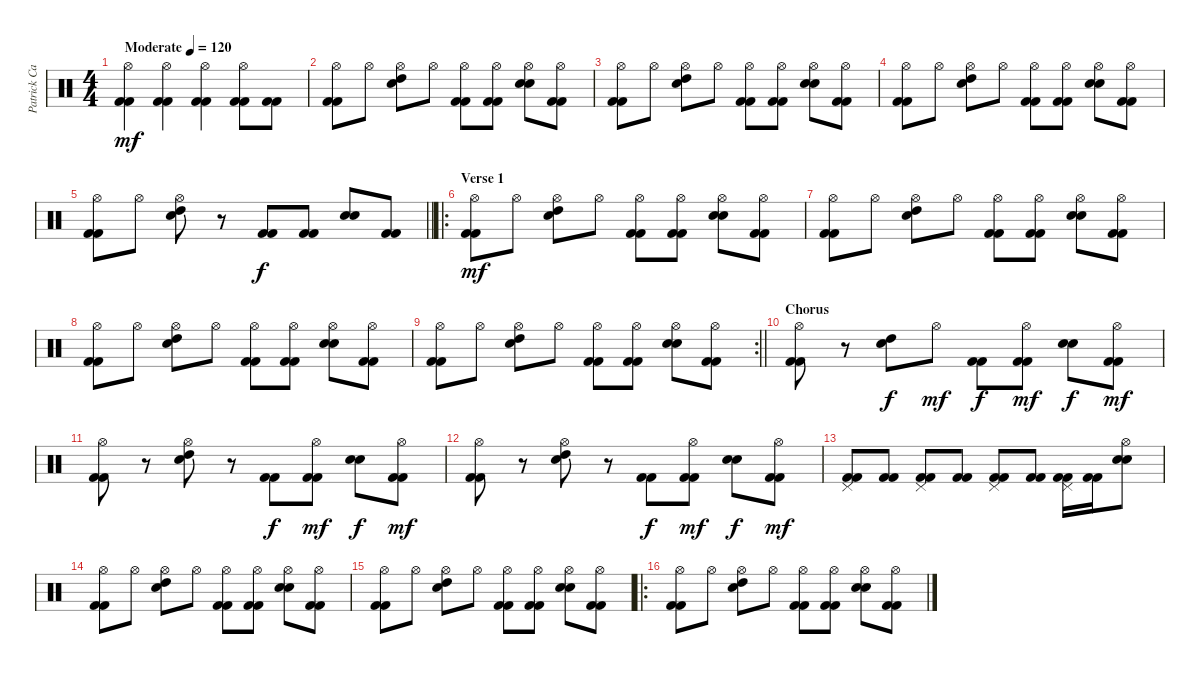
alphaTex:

\track ("Patrick Carney" "Patrick Ca") {instrument percussion}
\staff {score}
\articulation defaults
\ts (4 4)
\tempo (120 "Moderate")
\clef neutral
\ks c
("Hi-Hat (open)" "Kick (hit) 2" "Kick (hit) 2").4{dy mf} ("Hi-Hat (open)" "Kick (hit) 2" "Kick (hit) 2").4 ("Hi-Hat (open)" "Kick (hit) 2" "Kick (hit) 2").4 ("Hi-Hat (open)" "Kick (hit) 2" "Kick (hit) 2").8 ("Kick (hit) 2" "Kick (hit) 2").8 |
("Hi-Hat (open)" "Kick (hit) 2" "Kick (hit) 2").8 "Hi-Hat (open)".8 ("Hi-Hat (open)" "Electric Snare (hit)" "High Tom (hit)").8 "Hi-Hat (open)".8 ("Hi-Hat (open)" "Kick (hit) 2" "Kick (hit) 2").8 ("Hi-Hat (open)" "Kick (hit) 2" "Kick (hit) 2").8 ("Hi-Hat (open)" "Electric Snare (hit)" "Snare (hit) 2").8 ("Hi-Hat (open)" "Kick (hit) 2" "Kick (hit) 2").8 |
("Hi-Hat (open)" "Kick (hit) 2" "Kick (hit) 2").8 "Hi-Hat (open)".8 ("Hi-Hat (open)" "Electric Snare (hit)" "High Tom (hit)").8 "Hi-Hat (open)".8 ("Hi-Hat (open)" "Kick (hit) 2" "Kick (hit) 2").8 ("Hi-Hat (open)" "Kick (hit) 2" "Kick (hit) 2").8 ("Hi-Hat (open)" "Electric Snare (hit)" "Snare (hit) 2").8 ("Hi-Hat (open)" "Kick (hit) 2" "Kick (hit) 2").8 |
("Hi-Hat (open)" "Kick (hit) 2" "Kick (hit) 2").8 "Hi-Hat (open)".8 ("Hi-Hat (open)" "Electric Snare (hit)" "High Tom (hit)").8 "Hi-Hat (open)".8 ("Hi-Hat (open)" "Kick (hit) 2" "Kick (hit) 2").8 ("Hi-Hat (open)" "Kick (hit) 2" "Kick (hit) 2").8 ("Hi-Hat (open)" "Electric Snare (hit)" "Snare (hit) 2").8 ("Hi-Hat (open)" "Kick (hit) 2" "Kick (hit) 2").8 |
\barLineRight lightlight
("Hi-Hat (open)" "Kick (hit) 2" "Kick (hit) 2").8 "Hi-Hat (open)".8 ("Hi-Hat (open)" "Electric Snare (hit)" "High Tom (hit)").8 r.8 ("Kick (hit) 2" "Kick (hit) 2").8{dy f} ("Kick (hit) 2" "Kick (hit) 2").8 ("Electric Snare (hit)" "Snare (hit) 2").8 ("Kick (hit) 2" "Kick (hit) 2").8 |
\ro
\section ("" "Verse 1")
("Hi-Hat (open)" "Kick (hit) 2" "Kick (hit) 2").8{dy mf} "Hi-Hat (open)".8 ("Hi-Hat (open)" "Electric Snare (hit)" "High Tom (hit)").8 "Hi-Hat (open)".8 ("Hi-Hat (open)" "Kick (hit) 2" "Kick (hit) 2").8 ("Hi-Hat (open)" "Kick (hit) 2" "Kick (hit) 2").8 ("Hi-Hat (open)" "Electric Snare (hit)" "Snare (hit) 2").8 ("Hi-Hat (open)" "Kick (hit) 2" "Kick (hit) 2").8 |
("Hi-Hat (open)" "Kick (hit) 2" "Kick (hit) 2").8 "Hi-Hat (open)".8 ("Hi-Hat (open)" "Electric Snare (hit)" "High Tom (hit)").8 "Hi-Hat (open)".8 ("Hi-Hat (open)" "Kick (hit) 2" "Kick (hit) 2").8 ("Hi-Hat (open)" "Kick (hit) 2" "Kick (hit) 2").8 ("Hi-Hat (open)" "Electric Snare (hit)" "Snare (hit) 2").8 ("Hi-Hat (open)" "Kick (hit) 2" "Kick (hit) 2").8 |
("Hi-Hat (open)" "Kick (hit) 2" "Kick (hit) 2").8 "Hi-Hat (open)".8 ("Hi-Hat (open)" "Electric Snare (hit)" "High Tom (hit)").8 "Hi-Hat (open)".8 ("Hi-Hat (open)" "Kick (hit) 2" "Kick (hit) 2").8 ("Hi-Hat (open)" "Kick (hit) 2" "Kick (hit) 2").8 ("Hi-Hat (open)" "Electric Snare (hit)" "Snare (hit) 2").8 ("Hi-Hat (open)" "Kick (hit) 2" "Kick (hit) 2").8 |
\rc 2
\barLineRight lightlight
("Hi-Hat (open)" "Kick (hit) 2" "Kick (hit) 2").8 "Hi-Hat (open)".8 ("Hi-Hat (open)" "Electric Snare (hit)" "High Tom (hit)").8 "Hi-Hat (open)".8 ("Hi-Hat (open)" "Kick (hit) 2" "Kick (hit) 2").8 ("Hi-Hat (open)" "Kick (hit) 2" "Kick (hit) 2").8 ("Hi-Hat (open)" "Electric Snare (hit)" "Snare (hit) 2").8 ("Hi-Hat (open)" "Kick (hit) 2" "Kick (hit) 2").8 |
\section ("" "Chorus")
("Hi-Hat (open)" "Kick (hit) 2" "Kick (hit) 2").8 r.8 ("Electric Snare (hit)" "High Tom (hit)").8{dy f} "Hi-Hat (open)".8{dy mf} ("Kick (hit) 2" "Kick (hit) 2").8{dy f} ("Hi-Hat (open)" "Kick (hit) 2" "Kick (hit) 2").8{dy mf} ("Electric Snare (hit)" "Snare (hit) 2").8{dy f} ("Hi-Hat (open)" "Kick (hit) 2" "Kick (hit) 2").8{dy mf} |
("Hi-Hat (open)" "Kick (hit) 2" "Kick (hit) 2").8 r.8 ("Hi-Hat (open)" "Electric Snare (hit)" "High Tom (hit)").8 r.8 ("Kick (hit) 2" "Kick (hit) 2").8{dy f} ("Hi-Hat (open)" "Kick (hit) 2" "Kick (hit) 2").8{dy mf} ("Electric Snare (hit)" "Snare (hit) 2").8{dy f} ("Hi-Hat (open)" "Kick (hit) 2" "Kick (hit) 2").8{dy mf} |
("Hi-Hat (open)" "Kick (hit) 2" "Kick (hit) 2").8 r.8 ("Hi-Hat (open)" "Electric Snare (hit)" "High Tom (hit)").8 r.8 ("Kick (hit) 2" "Kick (hit) 2").8{dy f} ("Hi-Hat (open)" "Kick (hit) 2" "Kick (hit) 2").8{dy mf} ("Electric Snare (hit)" "Snare (hit) 2").8{dy f} ("Hi-Hat (open)" "Kick (hit) 2" "Kick (hit) 2").8{dy mf} |
("Pedal Hi-Hat (hit)" "Kick (hit) 2" "Kick (hit) 2").8 ("Kick (hit) 2" "Kick (hit) 2").8 ("Pedal Hi-Hat (hit)" "Kick (hit) 2" "Kick (hit) 2").8 ("Kick (hit) 2" "Kick (hit) 2").8 ("Pedal Hi-Hat (hit)" "Kick (hit) 2" "Kick (hit) 2").8 ("Kick (hit) 2" "Kick (hit) 2").8 ("Pedal Hi-Hat (hit)" "Kick (hit) 2" "Kick (hit) 2").16 ("Kick (hit) 2" "Kick (hit) 2").16 ("Hi-Hat (open)" "Electric Snare (hit)" "Snare (hit) 2").8 |
("Hi-Hat (open)" "Kick (hit) 2" "Kick (hit) 2").8 "Hi-Hat (open)".8 ("Hi-Hat (open)" "Electric Snare (hit)" "High Tom (hit)").8 "Hi-Hat (open)".8 ("Hi-Hat (open)" "Kick (hit) 2" "Kick (hit) 2").8 ("Hi-Hat (open)" "Kick (hit) 2" "Kick (hit) 2").8 ("Hi-Hat (open)" "Electric Snare (hit)" "Snare (hit) 2").8 ("Hi-Hat (open)" "Kick (hit) 2" "Kick (hit) 2").8 |
("Hi-Hat (open)" "Kick (hit) 2" "Kick (hit) 2").8 "Hi-Hat (open)".8 ("Hi-Hat (open)" "Electric Snare (hit)" "High Tom (hit)").8 "Hi-Hat (open)".8 ("Hi-Hat (open)" "Kick (hit) 2" "Kick (hit) 2").8 ("Hi-Hat (open)" "Kick (hit) 2" "Kick (hit) 2").8 ("Hi-Hat (open)" "Electric Snare (hit)" "Snare (hit) 2").8 ("Hi-Hat (open)" "Kick (hit) 2" "Kick (hit) 2").8 |
\ro
("Hi-Hat (open)" "Kick (hit) 2" "Kick (hit) 2").8 "Hi-Hat (open)".8 ("Hi-Hat (open)" "Electric Snare (hit)" "High Tom (hit)").8 "Hi-Hat (open)".8 ("Hi-Hat (open)" "Kick (hit) 2" "Kick (hit) 2").8 ("Hi-Hat (open)" "Kick (hit) 2" "Kick (hit) 2").8 ("Hi-Hat (open)" "Electric Snare (hit)" "Snare (hit) 2").8 ("Hi-Hat (open)" "Kick (hit) 2" "Kick (hit) 2").8
